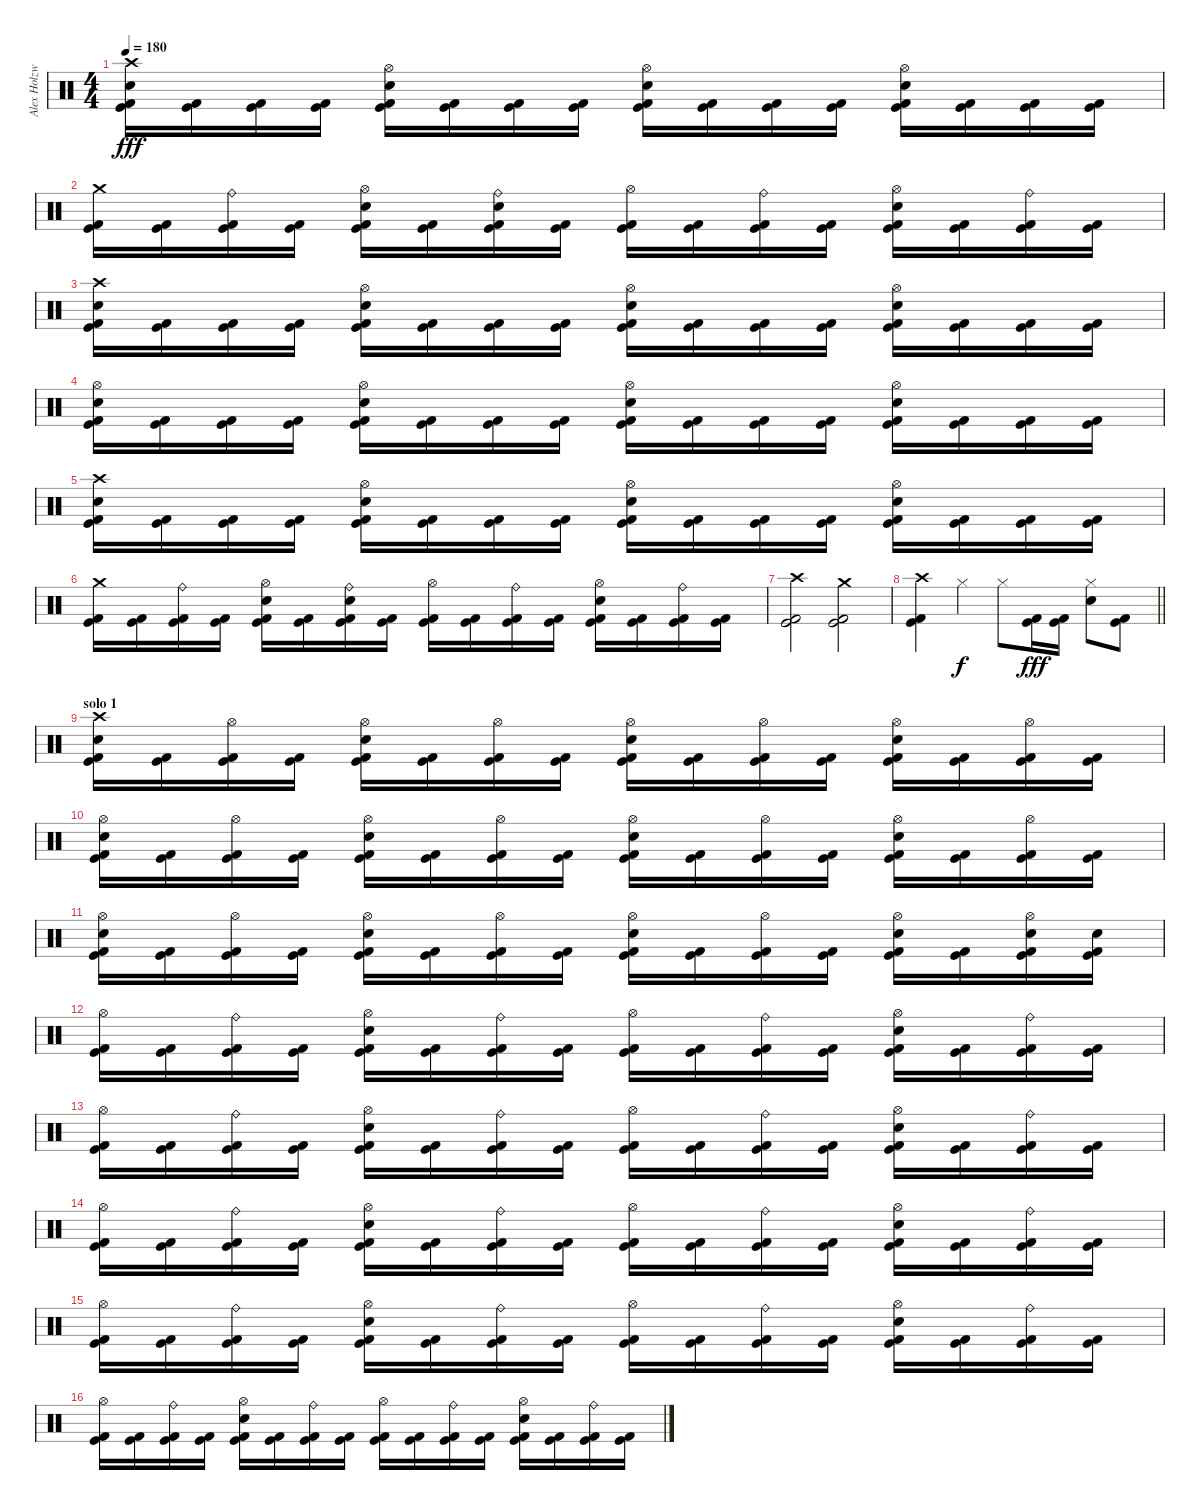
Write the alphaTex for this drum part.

\track ("Alex Holzwarth" "Alex Holzw") {instrument percussion}
\staff {score}
\articulation defaults
\ts (4 4)
\tempo 180
\clef neutral
\ks c
("Crash high (hit)" "Snare (hit) 2" "Kick (hit)" "Kick (hit) 2").16{dy fff} ("Kick (hit)" "Kick (hit) 2").16 ("Kick (hit)" "Kick (hit) 2").16 ("Kick (hit)" "Kick (hit) 2").16 ("Hi-Hat (open)" "Snare (hit) 2" "Kick (hit)" "Kick (hit) 2").16 ("Kick (hit)" "Kick (hit) 2").16 ("Kick (hit)" "Kick (hit) 2").16 ("Kick (hit)" "Kick (hit) 2").16 ("Hi-Hat (open)" "Snare (hit) 2" "Kick (hit)" "Kick (hit) 2").16 ("Kick (hit)" "Kick (hit) 2").16 ("Kick (hit)" "Kick (hit) 2").16 ("Kick (hit)" "Kick (hit) 2").16 ("Hi-Hat (open)" "Snare (hit) 2" "Kick (hit)" "Kick (hit) 2").16 ("Kick (hit)" "Kick (hit) 2").16 ("Kick (hit)" "Kick (hit) 2").16 ("Kick (hit)" "Kick (hit) 2").16 |
("Crash medium (hit)" "Kick (hit)" "Kick (hit) 2").16 ("Kick (hit)" "Kick (hit) 2").16 ("Ride (bell)" "Kick (hit)" "Kick (hit) 2").16 ("Kick (hit)" "Kick (hit) 2").16 ("Hi-Hat (open)" "Snare (hit) 2" "Kick (hit)" "Kick (hit) 2").16 ("Kick (hit)" "Kick (hit) 2").16 ("Ride (bell)" "Snare (hit) 2" "Kick (hit)" "Kick (hit) 2").16 ("Kick (hit)" "Kick (hit) 2").16 ("Hi-Hat (open)" "Kick (hit)" "Kick (hit) 2").16 ("Kick (hit)" "Kick (hit) 2").16 ("Ride (bell)" "Kick (hit)" "Kick (hit) 2").16 ("Kick (hit)" "Kick (hit) 2").16 ("Hi-Hat (open)" "Snare (hit) 2" "Kick (hit)" "Kick (hit) 2").16 ("Kick (hit)" "Kick (hit) 2").16 ("Ride (bell)" "Kick (hit)" "Kick (hit) 2").16 ("Kick (hit)" "Kick (hit) 2").16 |
("Crash high (hit)" "Snare (hit) 2" "Kick (hit)" "Kick (hit) 2").16 ("Kick (hit)" "Kick (hit) 2").16 ("Kick (hit)" "Kick (hit) 2").16 ("Kick (hit)" "Kick (hit) 2").16 ("Hi-Hat (open)" "Snare (hit) 2" "Kick (hit)" "Kick (hit) 2").16 ("Kick (hit)" "Kick (hit) 2").16 ("Kick (hit)" "Kick (hit) 2").16 ("Kick (hit)" "Kick (hit) 2").16 ("Hi-Hat (open)" "Snare (hit) 2" "Kick (hit)" "Kick (hit) 2").16 ("Kick (hit)" "Kick (hit) 2").16 ("Kick (hit)" "Kick (hit) 2").16 ("Kick (hit)" "Kick (hit) 2").16 ("Hi-Hat (open)" "Snare (hit) 2" "Kick (hit)" "Kick (hit) 2").16 ("Kick (hit)" "Kick (hit) 2").16 ("Kick (hit)" "Kick (hit) 2").16 ("Kick (hit)" "Kick (hit) 2").16 |
("Hi-Hat (open)" "Snare (hit) 2" "Kick (hit)" "Kick (hit) 2").16 ("Kick (hit)" "Kick (hit) 2").16 ("Kick (hit)" "Kick (hit) 2").16 ("Kick (hit)" "Kick (hit) 2").16 ("Hi-Hat (open)" "Snare (hit) 2" "Kick (hit)" "Kick (hit) 2").16 ("Kick (hit)" "Kick (hit) 2").16 ("Kick (hit)" "Kick (hit) 2").16 ("Kick (hit)" "Kick (hit) 2").16 ("Hi-Hat (open)" "Snare (hit) 2" "Kick (hit)" "Kick (hit) 2").16 ("Kick (hit)" "Kick (hit) 2").16 ("Kick (hit)" "Kick (hit) 2").16 ("Kick (hit)" "Kick (hit) 2").16 ("Hi-Hat (open)" "Snare (hit) 2" "Kick (hit)" "Kick (hit) 2").16 ("Kick (hit)" "Kick (hit) 2").16 ("Kick (hit)" "Kick (hit) 2").16 ("Kick (hit)" "Kick (hit) 2").16 |
("Crash high (hit)" "Snare (hit) 2" "Kick (hit)" "Kick (hit) 2").16 ("Kick (hit)" "Kick (hit) 2").16 ("Kick (hit)" "Kick (hit) 2").16 ("Kick (hit)" "Kick (hit) 2").16 ("Hi-Hat (open)" "Snare (hit) 2" "Kick (hit)" "Kick (hit) 2").16 ("Kick (hit)" "Kick (hit) 2").16 ("Kick (hit)" "Kick (hit) 2").16 ("Kick (hit)" "Kick (hit) 2").16 ("Hi-Hat (open)" "Snare (hit) 2" "Kick (hit)" "Kick (hit) 2").16 ("Kick (hit)" "Kick (hit) 2").16 ("Kick (hit)" "Kick (hit) 2").16 ("Kick (hit)" "Kick (hit) 2").16 ("Hi-Hat (open)" "Snare (hit) 2" "Kick (hit)" "Kick (hit) 2").16 ("Kick (hit)" "Kick (hit) 2").16 ("Kick (hit)" "Kick (hit) 2").16 ("Kick (hit)" "Kick (hit) 2").16 |
("Crash medium (hit)" "Kick (hit)" "Kick (hit) 2").16 ("Kick (hit)" "Kick (hit) 2").16 ("Ride (bell)" "Kick (hit)" "Kick (hit) 2").16 ("Kick (hit)" "Kick (hit) 2").16 ("Hi-Hat (open)" "Snare (hit) 2" "Kick (hit)" "Kick (hit) 2").16 ("Kick (hit)" "Kick (hit) 2").16 ("Ride (bell)" "Snare (hit) 2" "Kick (hit)" "Kick (hit) 2").16 ("Kick (hit)" "Kick (hit) 2").16 ("Hi-Hat (open)" "Kick (hit)" "Kick (hit) 2").16 ("Kick (hit)" "Kick (hit) 2").16 ("Ride (bell)" "Kick (hit)" "Kick (hit) 2").16 ("Kick (hit)" "Kick (hit) 2").16 ("Hi-Hat (open)" "Snare (hit) 2" "Kick (hit)" "Kick (hit) 2").16 ("Kick (hit)" "Kick (hit) 2").16 ("Ride (bell)" "Kick (hit)" "Kick (hit) 2").16 ("Kick (hit)" "Kick (hit) 2").16 |
("Crash high (hit)" "Kick (hit)" "Kick (hit) 2").2 ("Crash medium (hit)" "Kick (hit)" "Kick (hit) 2").2 |
\barLineRight lightlight
("Crash high (hit)" "Kick (hit)" "Kick (hit) 2").4 "Hi-Hat (closed)".4{dy f} "Hi-Hat (closed)".8 ("Kick (hit)" "Kick (hit) 2").16{dy fff} ("Kick (hit)" "Kick (hit) 2").16 ("Hi-Hat (closed)" "Snare (hit) 2").8 ("Kick (hit)" "Kick (hit) 2").8 |
\section ("" "solo 1")
("Crash high (hit)" "Snare (hit) 2" "Kick (hit)" "Kick (hit) 2").16 ("Kick (hit)" "Kick (hit) 2").16 ("Hi-Hat (open)" "Kick (hit)" "Kick (hit) 2").16 ("Kick (hit)" "Kick (hit) 2").16 ("Hi-Hat (open)" "Snare (hit) 2" "Kick (hit)" "Kick (hit) 2").16 ("Kick (hit)" "Kick (hit) 2").16 ("Hi-Hat (open)" "Kick (hit)" "Kick (hit) 2").16 ("Kick (hit)" "Kick (hit) 2").16 ("Hi-Hat (open)" "Snare (hit) 2" "Kick (hit)" "Kick (hit) 2").16 ("Kick (hit)" "Kick (hit) 2").16 ("Hi-Hat (open)" "Kick (hit)" "Kick (hit) 2").16 ("Kick (hit)" "Kick (hit) 2").16 ("Hi-Hat (open)" "Snare (hit) 2" "Kick (hit)" "Kick (hit) 2").16 ("Kick (hit)" "Kick (hit) 2").16 ("Hi-Hat (open)" "Kick (hit)" "Kick (hit) 2").16 ("Kick (hit)" "Kick (hit) 2").16 |
("Hi-Hat (open)" "Snare (hit) 2" "Kick (hit)" "Kick (hit) 2").16 ("Kick (hit)" "Kick (hit) 2").16 ("Hi-Hat (open)" "Kick (hit)" "Kick (hit) 2").16 ("Kick (hit)" "Kick (hit) 2").16 ("Hi-Hat (open)" "Snare (hit) 2" "Kick (hit)" "Kick (hit) 2").16 ("Kick (hit)" "Kick (hit) 2").16 ("Hi-Hat (open)" "Kick (hit)" "Kick (hit) 2").16 ("Kick (hit)" "Kick (hit) 2").16 ("Hi-Hat (open)" "Snare (hit) 2" "Kick (hit)" "Kick (hit) 2").16 ("Kick (hit)" "Kick (hit) 2").16 ("Hi-Hat (open)" "Kick (hit)" "Kick (hit) 2").16 ("Kick (hit)" "Kick (hit) 2").16 ("Hi-Hat (open)" "Snare (hit) 2" "Kick (hit)" "Kick (hit) 2").16 ("Kick (hit)" "Kick (hit) 2").16 ("Hi-Hat (open)" "Kick (hit)" "Kick (hit) 2").16 ("Kick (hit)" "Kick (hit) 2").16 |
("Hi-Hat (open)" "Snare (hit) 2" "Kick (hit)" "Kick (hit) 2").16 ("Kick (hit)" "Kick (hit) 2").16 ("Hi-Hat (open)" "Kick (hit)" "Kick (hit) 2").16 ("Kick (hit)" "Kick (hit) 2").16 ("Hi-Hat (open)" "Snare (hit) 2" "Kick (hit)" "Kick (hit) 2").16 ("Kick (hit)" "Kick (hit) 2").16 ("Hi-Hat (open)" "Kick (hit)" "Kick (hit) 2").16 ("Kick (hit)" "Kick (hit) 2").16 ("Hi-Hat (open)" "Snare (hit) 2" "Kick (hit)" "Kick (hit) 2").16 ("Kick (hit)" "Kick (hit) 2").16 ("Hi-Hat (open)" "Kick (hit)" "Kick (hit) 2").16 ("Kick (hit)" "Kick (hit) 2").16 ("Hi-Hat (open)" "Snare (hit) 2" "Kick (hit)" "Kick (hit) 2").16 ("Kick (hit)" "Kick (hit) 2").16 ("Hi-Hat (open)" "Snare (hit) 2" "Kick (hit)" "Kick (hit) 2").16 ("Snare (hit) 2" "Kick (hit)" "Kick (hit) 2").16 |
("Hi-Hat (open)" "Kick (hit)" "Kick (hit) 2").16 ("Kick (hit)" "Kick (hit) 2").16 ("Ride (bell)" "Kick (hit)" "Kick (hit) 2").16 ("Kick (hit)" "Kick (hit) 2").16 ("Hi-Hat (open)" "Snare (hit) 2" "Kick (hit)" "Kick (hit) 2").16 ("Kick (hit)" "Kick (hit) 2").16 ("Ride (bell)" "Kick (hit)" "Kick (hit) 2").16 ("Kick (hit)" "Kick (hit) 2").16 ("Hi-Hat (open)" "Kick (hit)" "Kick (hit) 2").16 ("Kick (hit)" "Kick (hit) 2").16 ("Ride (bell)" "Kick (hit)" "Kick (hit) 2").16 ("Kick (hit)" "Kick (hit) 2").16 ("Hi-Hat (open)" "Snare (hit) 2" "Kick (hit)" "Kick (hit) 2").16 ("Kick (hit)" "Kick (hit) 2").16 ("Ride (bell)" "Kick (hit)" "Kick (hit) 2").16 ("Kick (hit)" "Kick (hit) 2").16 |
("Hi-Hat (open)" "Kick (hit)" "Kick (hit) 2").16 ("Kick (hit)" "Kick (hit) 2").16 ("Ride (bell)" "Kick (hit)" "Kick (hit) 2").16 ("Kick (hit)" "Kick (hit) 2").16 ("Hi-Hat (open)" "Snare (hit) 2" "Kick (hit)" "Kick (hit) 2").16 ("Kick (hit)" "Kick (hit) 2").16 ("Ride (bell)" "Kick (hit)" "Kick (hit) 2").16 ("Kick (hit)" "Kick (hit) 2").16 ("Hi-Hat (open)" "Kick (hit)" "Kick (hit) 2").16 ("Kick (hit)" "Kick (hit) 2").16 ("Ride (bell)" "Kick (hit)" "Kick (hit) 2").16 ("Kick (hit)" "Kick (hit) 2").16 ("Hi-Hat (open)" "Snare (hit) 2" "Kick (hit)" "Kick (hit) 2").16 ("Kick (hit)" "Kick (hit) 2").16 ("Ride (bell)" "Kick (hit)" "Kick (hit) 2").16 ("Kick (hit)" "Kick (hit) 2").16 |
("Hi-Hat (open)" "Kick (hit)" "Kick (hit) 2").16 ("Kick (hit)" "Kick (hit) 2").16 ("Ride (bell)" "Kick (hit)" "Kick (hit) 2").16 ("Kick (hit)" "Kick (hit) 2").16 ("Hi-Hat (open)" "Snare (hit) 2" "Kick (hit)" "Kick (hit) 2").16 ("Kick (hit)" "Kick (hit) 2").16 ("Ride (bell)" "Kick (hit)" "Kick (hit) 2").16 ("Kick (hit)" "Kick (hit) 2").16 ("Hi-Hat (open)" "Kick (hit)" "Kick (hit) 2").16 ("Kick (hit)" "Kick (hit) 2").16 ("Ride (bell)" "Kick (hit)" "Kick (hit) 2").16 ("Kick (hit)" "Kick (hit) 2").16 ("Hi-Hat (open)" "Snare (hit) 2" "Kick (hit)" "Kick (hit) 2").16 ("Kick (hit)" "Kick (hit) 2").16 ("Ride (bell)" "Kick (hit)" "Kick (hit) 2").16 ("Kick (hit)" "Kick (hit) 2").16 |
("Hi-Hat (open)" "Kick (hit)" "Kick (hit) 2").16 ("Kick (hit)" "Kick (hit) 2").16 ("Ride (bell)" "Kick (hit)" "Kick (hit) 2").16 ("Kick (hit)" "Kick (hit) 2").16 ("Hi-Hat (open)" "Snare (hit) 2" "Kick (hit)" "Kick (hit) 2").16 ("Kick (hit)" "Kick (hit) 2").16 ("Ride (bell)" "Kick (hit)" "Kick (hit) 2").16 ("Kick (hit)" "Kick (hit) 2").16 ("Hi-Hat (open)" "Kick (hit)" "Kick (hit) 2").16 ("Kick (hit)" "Kick (hit) 2").16 ("Ride (bell)" "Kick (hit)" "Kick (hit) 2").16 ("Kick (hit)" "Kick (hit) 2").16 ("Hi-Hat (open)" "Snare (hit) 2" "Kick (hit)" "Kick (hit) 2").16 ("Kick (hit)" "Kick (hit) 2").16 ("Ride (bell)" "Kick (hit)" "Kick (hit) 2").16 ("Kick (hit)" "Kick (hit) 2").16 |
("Hi-Hat (open)" "Kick (hit)" "Kick (hit) 2").16 ("Kick (hit)" "Kick (hit) 2").16 ("Ride (bell)" "Kick (hit)" "Kick (hit) 2").16 ("Kick (hit)" "Kick (hit) 2").16 ("Hi-Hat (open)" "Snare (hit) 2" "Kick (hit)" "Kick (hit) 2").16 ("Kick (hit)" "Kick (hit) 2").16 ("Ride (bell)" "Kick (hit)" "Kick (hit) 2").16 ("Kick (hit)" "Kick (hit) 2").16 ("Hi-Hat (open)" "Kick (hit)" "Kick (hit) 2").16 ("Kick (hit)" "Kick (hit) 2").16 ("Ride (bell)" "Kick (hit)" "Kick (hit) 2").16 ("Kick (hit)" "Kick (hit) 2").16 ("Hi-Hat (open)" "Snare (hit) 2" "Kick (hit)" "Kick (hit) 2").16 ("Kick (hit)" "Kick (hit) 2").16 ("Ride (bell)" "Kick (hit)" "Kick (hit) 2").16 ("Kick (hit)" "Kick (hit) 2").16
